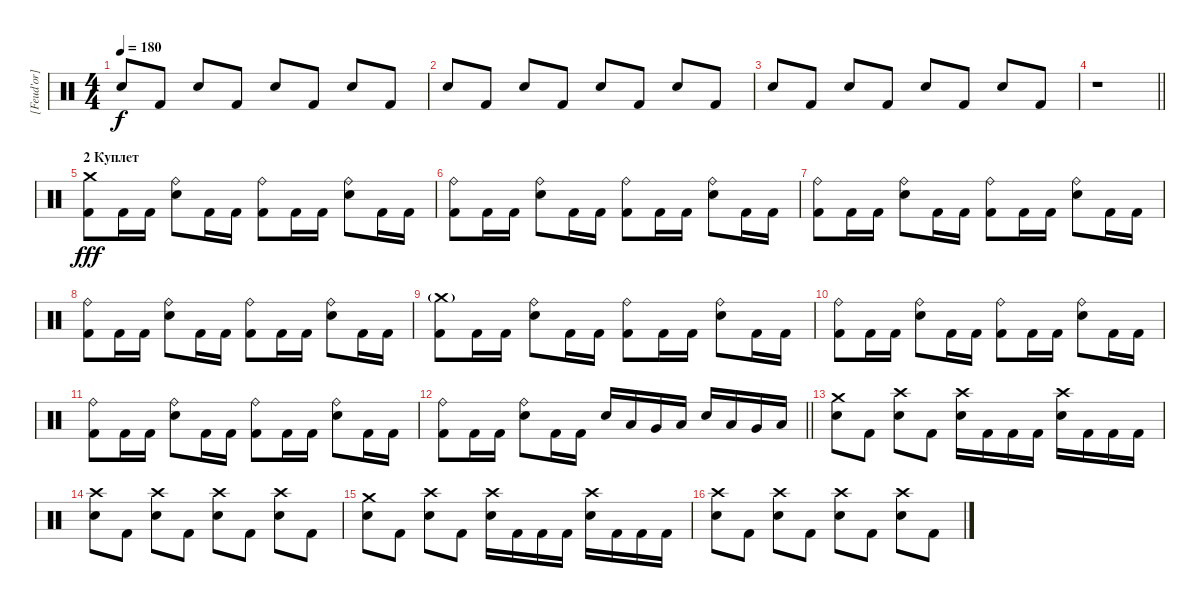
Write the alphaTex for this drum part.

\track ("[Feud'or] - Drums" "[Feud'or] ") {instrument percussion}
\staff {score}
\articulation defaults
\ts (4 4)
\tempo 180
\clef neutral
\ks c "Electric Snare (hit)".8{dy f} "Kick (hit) 2".8 "Electric Snare (hit)".8 "Kick (hit) 2".8 "Electric Snare (hit)".8 "Kick (hit) 2".8 "Electric Snare (hit)".8 "Kick (hit) 2".8
|
"Electric Snare (hit)".8 "Kick (hit) 2".8 "Electric Snare (hit)".8 "Kick (hit) 2".8 "Electric Snare (hit)".8 "Kick (hit) 2".8 "Electric Snare (hit)".8 "Kick (hit) 2".8 |
"Electric Snare (hit)".8 "Kick (hit) 2".8 "Electric Snare (hit)".8 "Kick (hit) 2".8 "Electric Snare (hit)".8 "Kick (hit) 2".8 "Electric Snare (hit)".8 "Kick (hit) 2".8 |
\barLineRight lightlight
r.1 |
\section ("" "2 Куплет")
("Crash medium (hit)" "Kick (hit) 2").8{dy fff} "Kick (hit) 2".16 "Kick (hit) 2".16 ("Ride (bell)" "Electric Snare (hit)").8 "Kick (hit) 2".16 "Kick (hit) 2".16 ("Ride (bell)" "Kick (hit) 2").8 "Kick (hit) 2".16 "Kick (hit) 2".16 ("Ride (bell)" "Electric Snare (hit)").8 "Kick (hit) 2".16 "Kick (hit) 2".16 |
("Ride (bell)" "Kick (hit) 2").8 "Kick (hit) 2".16 "Kick (hit) 2".16 ("Ride (bell)" "Electric Snare (hit)").8 "Kick (hit) 2".16 "Kick (hit) 2".16 ("Ride (bell)" "Kick (hit) 2").8 "Kick (hit) 2".16 "Kick (hit) 2".16 ("Ride (bell)" "Electric Snare (hit)").8 "Kick (hit) 2".16 "Kick (hit) 2".16 |
("Ride (bell)" "Kick (hit) 2").8 "Kick (hit) 2".16 "Kick (hit) 2".16 ("Ride (bell)" "Electric Snare (hit)").8 "Kick (hit) 2".16 "Kick (hit) 2".16 ("Ride (bell)" "Kick (hit) 2").8 "Kick (hit) 2".16 "Kick (hit) 2".16 ("Ride (bell)" "Electric Snare (hit)").8 "Kick (hit) 2".16 "Kick (hit) 2".16 |
("Ride (bell)" "Kick (hit) 2").8 "Kick (hit) 2".16 "Kick (hit) 2".16 ("Ride (bell)" "Electric Snare (hit)").8 "Kick (hit) 2".16 "Kick (hit) 2".16 ("Ride (bell)" "Kick (hit) 2").8 "Kick (hit) 2".16 "Kick (hit) 2".16 ("Ride (bell)" "Electric Snare (hit)").8 "Kick (hit) 2".16 "Kick (hit) 2".16 |
("Crash medium (hit)"{g} "Kick (hit) 2").8 "Kick (hit) 2".16 "Kick (hit) 2".16 ("Ride (bell)" "Electric Snare (hit)").8 "Kick (hit) 2".16 "Kick (hit) 2".16 ("Ride (bell)" "Kick (hit) 2").8 "Kick (hit) 2".16 "Kick (hit) 2".16 ("Ride (bell)" "Electric Snare (hit)").8 "Kick (hit) 2".16 "Kick (hit) 2".16 |
("Ride (bell)" "Kick (hit) 2").8 "Kick (hit) 2".16 "Kick (hit) 2".16 ("Ride (bell)" "Electric Snare (hit)").8 "Kick (hit) 2".16 "Kick (hit) 2".16 ("Ride (bell)" "Kick (hit) 2").8 "Kick (hit) 2".16 "Kick (hit) 2".16 ("Ride (bell)" "Electric Snare (hit)").8 "Kick (hit) 2".16 "Kick (hit) 2".16 |
("Ride (bell)" "Kick (hit) 2").8 "Kick (hit) 2".16 "Kick (hit) 2".16 ("Ride (bell)" "Electric Snare (hit)").8 "Kick (hit) 2".16 "Kick (hit) 2".16 ("Ride (bell)" "Kick (hit) 2").8 "Kick (hit) 2".16 "Kick (hit) 2".16 ("Ride (bell)" "Electric Snare (hit)").8 "Kick (hit) 2".16 "Kick (hit) 2".16 |
\barLineRight lightlight
("Ride (bell)" "Kick (hit) 2").8 "Kick (hit) 2".16 "Kick (hit) 2".16 ("Ride (bell)" "Electric Snare (hit)").8 "Kick (hit) 2".16 "Kick (hit) 2".16 "Electric Snare (hit)".16 "Low Tom (hit)".16 "Very Low Tom (hit)".16 "Low Floor Tom (hit)".16 "Electric Snare (hit)".16 "Low Tom (hit)".16 "Very Low Tom (hit)".16 "Low Floor Tom (hit)".16 |
("Crash medium (hit)" "Electric Snare (hit)").8 "Kick (hit) 2".8 ("Crash high (hit)" "Electric Snare (hit)").8 "Kick (hit) 2".8 ("Crash high (hit)" "Electric Snare (hit)").16 "Kick (hit) 2".16 "Kick (hit) 2".16 "Kick (hit) 2".16 ("Crash high (hit)" "Electric Snare (hit)").16 "Kick (hit) 2".16 "Kick (hit) 2".16 "Kick (hit) 2".16 |
("Crash high (hit)" "Electric Snare (hit)").8 "Kick (hit) 2".8 ("Crash high (hit)" "Electric Snare (hit)").8 "Kick (hit) 2".8 ("Crash high (hit)" "Electric Snare (hit)").8 "Kick (hit) 2".8 ("Crash high (hit)" "Electric Snare (hit)").8 "Kick (hit) 2".8 |
("Crash medium (hit)" "Electric Snare (hit)").8 "Kick (hit) 2".8 ("Crash high (hit)" "Electric Snare (hit)").8 "Kick (hit) 2".8 ("Crash high (hit)" "Electric Snare (hit)").16 "Kick (hit) 2".16 "Kick (hit) 2".16 "Kick (hit) 2".16 ("Crash high (hit)" "Electric Snare (hit)").16 "Kick (hit) 2".16 "Kick (hit) 2".16 "Kick (hit) 2".16 |
("Crash high (hit)" "Electric Snare (hit)").8 "Kick (hit) 2".8 ("Crash high (hit)" "Electric Snare (hit)").8 "Kick (hit) 2".8 ("Crash high (hit)" "Electric Snare (hit)").8 "Kick (hit) 2".8 ("Crash high (hit)" "Electric Snare (hit)").8 "Kick (hit) 2".8
